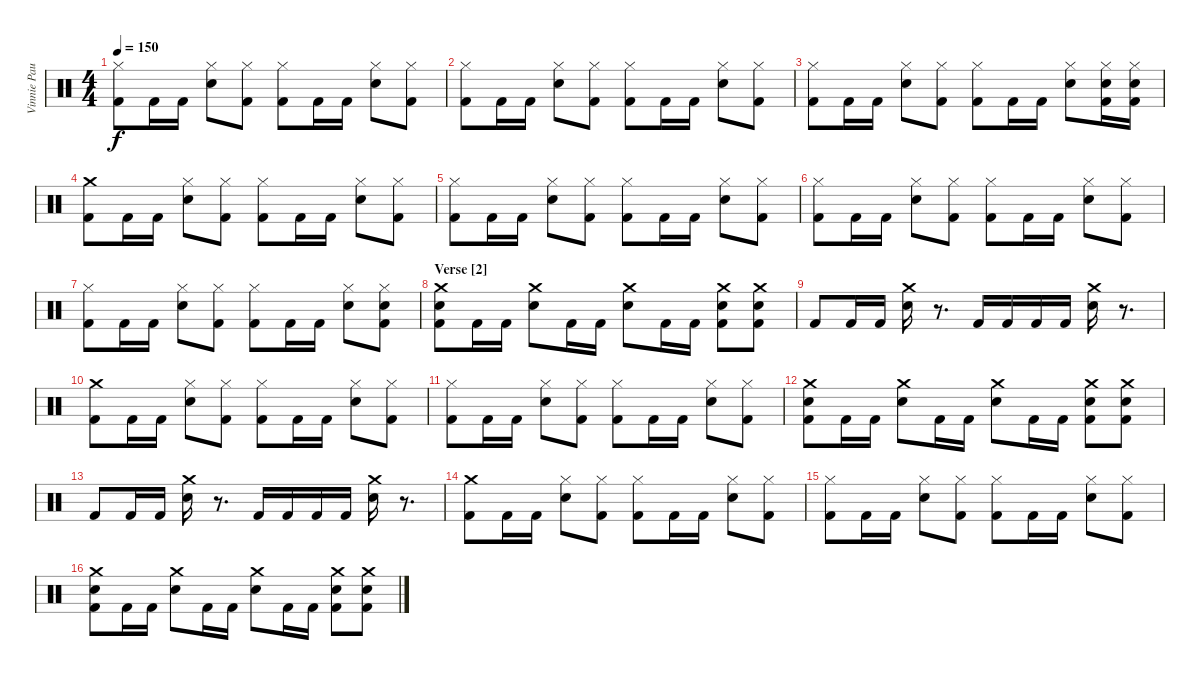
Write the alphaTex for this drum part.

\track ("Vinnie Paul" "Vinnie Pau") {instrument percussion}
\staff {score}
\articulation defaults
\ts (4 4)
\tempo 150
\clef neutral
\ks c
("Hi-Hat (closed)" "Kick (hit) 2").8{dy f} "Kick (hit) 2".16 "Kick (hit) 2".16 ("Hi-Hat (closed)" "Snare (hit) 2").8 ("Hi-Hat (closed)" "Kick (hit) 2").8 ("Hi-Hat (closed)" "Kick (hit) 2").8 "Kick (hit) 2".16 "Kick (hit) 2".16 ("Hi-Hat (closed)" "Snare (hit) 2").8 ("Hi-Hat (closed)" "Kick (hit) 2").8 |
("Hi-Hat (closed)" "Kick (hit) 2").8 "Kick (hit) 2".16 "Kick (hit) 2".16 ("Hi-Hat (closed)" "Snare (hit) 2").8 ("Hi-Hat (closed)" "Kick (hit) 2").8 ("Hi-Hat (closed)" "Kick (hit) 2").8 "Kick (hit) 2".16 "Kick (hit) 2".16 ("Hi-Hat (closed)" "Snare (hit) 2").8 ("Hi-Hat (closed)" "Kick (hit) 2").8 |
("Hi-Hat (closed)" "Kick (hit) 2").8 "Kick (hit) 2".16 "Kick (hit) 2".16 ("Hi-Hat (closed)" "Snare (hit) 2").8 ("Hi-Hat (closed)" "Kick (hit) 2").8 ("Hi-Hat (closed)" "Kick (hit) 2").8 "Kick (hit) 2".16 "Kick (hit) 2".16 ("Hi-Hat (closed)" "Snare (hit) 2").8 ("Hi-Hat (closed)" "Snare (hit) 2" "Kick (hit) 2").16 ("Hi-Hat (closed)" "Snare (hit) 2" "Kick (hit) 2").16 |
("Crash medium (hit)" "Kick (hit) 2").8 "Kick (hit) 2".16 "Kick (hit) 2".16 ("Hi-Hat (closed)" "Snare (hit) 2").8 ("Hi-Hat (closed)" "Kick (hit) 2").8 ("Hi-Hat (closed)" "Kick (hit) 2").8 "Kick (hit) 2".16 "Kick (hit) 2".16 ("Hi-Hat (closed)" "Snare (hit) 2").8 ("Hi-Hat (closed)" "Kick (hit) 2").8 |
("Hi-Hat (closed)" "Kick (hit) 2").8 "Kick (hit) 2".16 "Kick (hit) 2".16 ("Hi-Hat (closed)" "Snare (hit) 2").8 ("Hi-Hat (closed)" "Kick (hit) 2").8 ("Hi-Hat (closed)" "Kick (hit) 2").8 "Kick (hit) 2".16 "Kick (hit) 2".16 ("Hi-Hat (closed)" "Snare (hit) 2").8 ("Hi-Hat (closed)" "Kick (hit) 2").8 |
("Hi-Hat (closed)" "Kick (hit) 2").8 "Kick (hit) 2".16 "Kick (hit) 2".16 ("Hi-Hat (closed)" "Snare (hit) 2").8 ("Hi-Hat (closed)" "Kick (hit) 2").8 ("Hi-Hat (closed)" "Kick (hit) 2").8 "Kick (hit) 2".16 "Kick (hit) 2".16 ("Hi-Hat (closed)" "Snare (hit) 2").8 ("Hi-Hat (closed)" "Kick (hit) 2").8 |
("Hi-Hat (closed)" "Kick (hit) 2").8 "Kick (hit) 2".16 "Kick (hit) 2".16 ("Hi-Hat (closed)" "Snare (hit) 2").8 ("Hi-Hat (closed)" "Kick (hit) 2").8 ("Hi-Hat (closed)" "Kick (hit) 2").8 "Kick (hit) 2".16 "Kick (hit) 2".16 ("Hi-Hat (closed)" "Snare (hit) 2").8 ("Hi-Hat (closed)" "Snare (hit) 2" "Kick (hit) 2").8 |
\section ("" "Verse [2]")
("Crash medium (hit)" "Snare (hit) 2" "Kick (hit) 2").8 "Kick (hit) 2".16 "Kick (hit) 2".16 ("Crash medium (hit)" "Snare (hit) 2").8 "Kick (hit) 2".16 "Kick (hit) 2".16 ("Crash medium (hit)" "Snare (hit) 2").8 "Kick (hit) 2".16 "Kick (hit) 2".16 ("Crash medium (hit)" "Snare (hit) 2" "Kick (hit) 2").8 ("Crash medium (hit)" "Snare (hit) 2" "Kick (hit) 2").8 |
"Kick (hit) 2".8 "Kick (hit) 2".16 "Kick (hit) 2".16 ("Crash medium (hit)" "Snare (hit) 2").16 r.8{d} "Kick (hit) 2".16 "Kick (hit) 2".16 "Kick (hit) 2".16 "Kick (hit) 2".16 ("Crash medium (hit)" "Snare (hit) 2").16 r.8{d} |
("Crash medium (hit)" "Kick (hit) 2").8 "Kick (hit) 2".16 "Kick (hit) 2".16 ("Hi-Hat (closed)" "Snare (hit) 2").8 ("Hi-Hat (closed)" "Kick (hit) 2").8 ("Hi-Hat (closed)" "Kick (hit) 2").8 "Kick (hit) 2".16 "Kick (hit) 2".16 ("Hi-Hat (closed)" "Snare (hit) 2").8 ("Hi-Hat (closed)" "Kick (hit) 2").8 |
("Hi-Hat (closed)" "Kick (hit) 2").8 "Kick (hit) 2".16 "Kick (hit) 2".16 ("Hi-Hat (closed)" "Snare (hit) 2").8 ("Hi-Hat (closed)" "Kick (hit) 2").8 ("Hi-Hat (closed)" "Kick (hit) 2").8 "Kick (hit) 2".16 "Kick (hit) 2".16 ("Hi-Hat (closed)" "Snare (hit) 2").8 ("Hi-Hat (closed)" "Kick (hit) 2").8 |
("Crash medium (hit)" "Snare (hit) 2" "Kick (hit) 2").8 "Kick (hit) 2".16 "Kick (hit) 2".16 ("Crash medium (hit)" "Snare (hit) 2").8 "Kick (hit) 2".16 "Kick (hit) 2".16 ("Crash medium (hit)" "Snare (hit) 2").8 "Kick (hit) 2".16 "Kick (hit) 2".16 ("Crash medium (hit)" "Snare (hit) 2" "Kick (hit) 2").8 ("Crash medium (hit)" "Snare (hit) 2" "Kick (hit) 2").8 |
"Kick (hit) 2".8 "Kick (hit) 2".16 "Kick (hit) 2".16 ("Crash medium (hit)" "Snare (hit) 2").16 r.8{d} "Kick (hit) 2".16 "Kick (hit) 2".16 "Kick (hit) 2".16 "Kick (hit) 2".16 ("Crash medium (hit)" "Snare (hit) 2").16 r.8{d} |
("Crash medium (hit)" "Kick (hit) 2").8 "Kick (hit) 2".16 "Kick (hit) 2".16 ("Hi-Hat (closed)" "Snare (hit) 2").8 ("Hi-Hat (closed)" "Kick (hit) 2").8 ("Hi-Hat (closed)" "Kick (hit) 2").8 "Kick (hit) 2".16 "Kick (hit) 2".16 ("Hi-Hat (closed)" "Snare (hit) 2").8 ("Hi-Hat (closed)" "Kick (hit) 2").8 |
("Hi-Hat (closed)" "Kick (hit) 2").8 "Kick (hit) 2".16 "Kick (hit) 2".16 ("Hi-Hat (closed)" "Snare (hit) 2").8 ("Hi-Hat (closed)" "Kick (hit) 2").8 ("Hi-Hat (closed)" "Kick (hit) 2").8 "Kick (hit) 2".16 "Kick (hit) 2".16 ("Hi-Hat (closed)" "Snare (hit) 2").8 ("Hi-Hat (closed)" "Kick (hit) 2").8 |
("Crash medium (hit)" "Snare (hit) 2" "Kick (hit) 2").8 "Kick (hit) 2".16 "Kick (hit) 2".16 ("Crash medium (hit)" "Snare (hit) 2").8 "Kick (hit) 2".16 "Kick (hit) 2".16 ("Crash medium (hit)" "Snare (hit) 2").8 "Kick (hit) 2".16 "Kick (hit) 2".16 ("Crash medium (hit)" "Snare (hit) 2" "Kick (hit) 2").8 ("Crash medium (hit)" "Snare (hit) 2" "Kick (hit) 2").8
